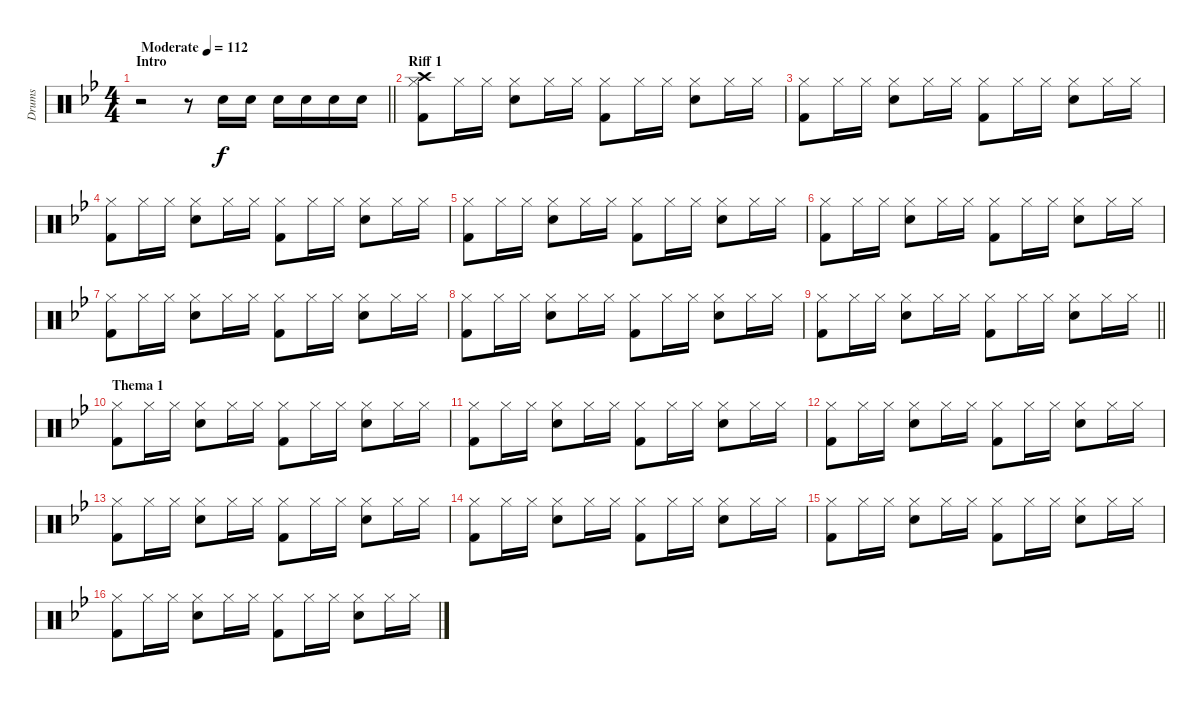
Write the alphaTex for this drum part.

\track ("Drums" "Drums") {instrument percussion}
\staff {score}
\articulation defaults
\ts (4 4)
\section ("" "Intro ")
\tempo (112 "Moderate")
\clef neutral
\barLineRight lightlight
\ks bb
r.2{dy f} r.8 "Snare (hit) 2".16 "Snare (hit) 2".16 "Snare (hit) 2".16 "Snare (hit) 2".16 "Snare (hit) 2".16 "Snare (hit) 2".16 |
\section ("" "Riff 1")
("Hi-Hat (closed)" "Crash high (hit)" "Kick (hit) 2").8 "Hi-Hat (closed)".16 "Hi-Hat (closed)".16 ("Snare (hit) 2" "Hi-Hat (closed)").8 "Hi-Hat (closed)".16 "Hi-Hat (closed)".16 ("Hi-Hat (closed)" "Kick (hit) 2").8 "Hi-Hat (closed)".16 "Hi-Hat (closed)".16 ("Snare (hit) 2" "Hi-Hat (closed)").8 "Hi-Hat (closed)".16 "Hi-Hat (closed)".16 |
("Hi-Hat (closed)" "Kick (hit) 2").8 "Hi-Hat (closed)".16 "Hi-Hat (closed)".16 ("Snare (hit) 2" "Hi-Hat (closed)").8 "Hi-Hat (closed)".16 "Hi-Hat (closed)".16 ("Hi-Hat (closed)" "Kick (hit) 2").8 "Hi-Hat (closed)".16 "Hi-Hat (closed)".16 ("Snare (hit) 2" "Hi-Hat (closed)").8 "Hi-Hat (closed)".16 "Hi-Hat (closed)".16 |
("Hi-Hat (closed)" "Kick (hit) 2").8 "Hi-Hat (closed)".16 "Hi-Hat (closed)".16 ("Snare (hit) 2" "Hi-Hat (closed)").8 "Hi-Hat (closed)".16 "Hi-Hat (closed)".16 ("Hi-Hat (closed)" "Kick (hit) 2").8 "Hi-Hat (closed)".16 "Hi-Hat (closed)".16 ("Snare (hit) 2" "Hi-Hat (closed)").8 "Hi-Hat (closed)".16 "Hi-Hat (closed)".16 |
("Hi-Hat (closed)" "Kick (hit) 2").8 "Hi-Hat (closed)".16 "Hi-Hat (closed)".16 ("Snare (hit) 2" "Hi-Hat (closed)").8 "Hi-Hat (closed)".16 "Hi-Hat (closed)".16 ("Hi-Hat (closed)" "Kick (hit) 2").8 "Hi-Hat (closed)".16 "Hi-Hat (closed)".16 ("Snare (hit) 2" "Hi-Hat (closed)").8 "Hi-Hat (closed)".16 "Hi-Hat (closed)".16 |
("Hi-Hat (closed)" "Kick (hit) 2").8 "Hi-Hat (closed)".16 "Hi-Hat (closed)".16 ("Snare (hit) 2" "Hi-Hat (closed)").8 "Hi-Hat (closed)".16 "Hi-Hat (closed)".16 ("Hi-Hat (closed)" "Kick (hit) 2").8 "Hi-Hat (closed)".16 "Hi-Hat (closed)".16 ("Snare (hit) 2" "Hi-Hat (closed)").8 "Hi-Hat (closed)".16 "Hi-Hat (closed)".16 |
("Hi-Hat (closed)" "Kick (hit) 2").8 "Hi-Hat (closed)".16 "Hi-Hat (closed)".16 ("Snare (hit) 2" "Hi-Hat (closed)").8 "Hi-Hat (closed)".16 "Hi-Hat (closed)".16 ("Hi-Hat (closed)" "Kick (hit) 2").8 "Hi-Hat (closed)".16 "Hi-Hat (closed)".16 ("Snare (hit) 2" "Hi-Hat (closed)").8 "Hi-Hat (closed)".16 "Hi-Hat (closed)".16 |
("Hi-Hat (closed)" "Kick (hit) 2").8 "Hi-Hat (closed)".16 "Hi-Hat (closed)".16 ("Snare (hit) 2" "Hi-Hat (closed)").8 "Hi-Hat (closed)".16 "Hi-Hat (closed)".16 ("Hi-Hat (closed)" "Kick (hit) 2").8 "Hi-Hat (closed)".16 "Hi-Hat (closed)".16 ("Snare (hit) 2" "Hi-Hat (closed)").8 "Hi-Hat (closed)".16 "Hi-Hat (closed)".16 |
\barLineRight lightlight
("Hi-Hat (closed)" "Kick (hit) 2").8 "Hi-Hat (closed)".16 "Hi-Hat (closed)".16 ("Snare (hit) 2" "Hi-Hat (closed)").8 "Hi-Hat (closed)".16 "Hi-Hat (closed)".16 ("Hi-Hat (closed)" "Kick (hit) 2").8 "Hi-Hat (closed)".16 "Hi-Hat (closed)".16 ("Snare (hit) 2" "Hi-Hat (closed)").8 "Hi-Hat (closed)".16 "Hi-Hat (closed)".16 |
\section ("" "Thema 1")
("Hi-Hat (closed)" "Kick (hit) 2").8 "Hi-Hat (closed)".16 "Hi-Hat (closed)".16 ("Snare (hit) 2" "Hi-Hat (closed)").8 "Hi-Hat (closed)".16 "Hi-Hat (closed)".16 ("Hi-Hat (closed)" "Kick (hit) 2").8 "Hi-Hat (closed)".16 "Hi-Hat (closed)".16 ("Snare (hit) 2" "Hi-Hat (closed)").8 "Hi-Hat (closed)".16 "Hi-Hat (closed)".16 |
("Hi-Hat (closed)" "Kick (hit) 2").8 "Hi-Hat (closed)".16 "Hi-Hat (closed)".16 ("Snare (hit) 2" "Hi-Hat (closed)").8 "Hi-Hat (closed)".16 "Hi-Hat (closed)".16 ("Hi-Hat (closed)" "Kick (hit) 2").8 "Hi-Hat (closed)".16 "Hi-Hat (closed)".16 ("Snare (hit) 2" "Hi-Hat (closed)").8 "Hi-Hat (closed)".16 "Hi-Hat (closed)".16 |
("Hi-Hat (closed)" "Kick (hit) 2").8 "Hi-Hat (closed)".16 "Hi-Hat (closed)".16 ("Snare (hit) 2" "Hi-Hat (closed)").8 "Hi-Hat (closed)".16 "Hi-Hat (closed)".16 ("Hi-Hat (closed)" "Kick (hit) 2").8 "Hi-Hat (closed)".16 "Hi-Hat (closed)".16 ("Snare (hit) 2" "Hi-Hat (closed)").8 "Hi-Hat (closed)".16 "Hi-Hat (closed)".16 |
("Hi-Hat (closed)" "Kick (hit) 2").8 "Hi-Hat (closed)".16 "Hi-Hat (closed)".16 ("Snare (hit) 2" "Hi-Hat (closed)").8 "Hi-Hat (closed)".16 "Hi-Hat (closed)".16 ("Hi-Hat (closed)" "Kick (hit) 2").8 "Hi-Hat (closed)".16 "Hi-Hat (closed)".16 ("Snare (hit) 2" "Hi-Hat (closed)").8 "Hi-Hat (closed)".16 "Hi-Hat (closed)".16 |
("Hi-Hat (closed)" "Kick (hit) 2").8 "Hi-Hat (closed)".16 "Hi-Hat (closed)".16 ("Snare (hit) 2" "Hi-Hat (closed)").8 "Hi-Hat (closed)".16 "Hi-Hat (closed)".16 ("Hi-Hat (closed)" "Kick (hit) 2").8 "Hi-Hat (closed)".16 "Hi-Hat (closed)".16 ("Snare (hit) 2" "Hi-Hat (closed)").8 "Hi-Hat (closed)".16 "Hi-Hat (closed)".16 |
("Hi-Hat (closed)" "Kick (hit) 2").8 "Hi-Hat (closed)".16 "Hi-Hat (closed)".16 ("Snare (hit) 2" "Hi-Hat (closed)").8 "Hi-Hat (closed)".16 "Hi-Hat (closed)".16 ("Hi-Hat (closed)" "Kick (hit) 2").8 "Hi-Hat (closed)".16 "Hi-Hat (closed)".16 ("Snare (hit) 2" "Hi-Hat (closed)").8 "Hi-Hat (closed)".16 "Hi-Hat (closed)".16 |
("Hi-Hat (closed)" "Kick (hit) 2").8 "Hi-Hat (closed)".16 "Hi-Hat (closed)".16 ("Snare (hit) 2" "Hi-Hat (closed)").8 "Hi-Hat (closed)".16 "Hi-Hat (closed)".16 ("Hi-Hat (closed)" "Kick (hit) 2").8 "Hi-Hat (closed)".16 "Hi-Hat (closed)".16 ("Snare (hit) 2" "Hi-Hat (closed)").8 "Hi-Hat (closed)".16 "Hi-Hat (closed)".16
